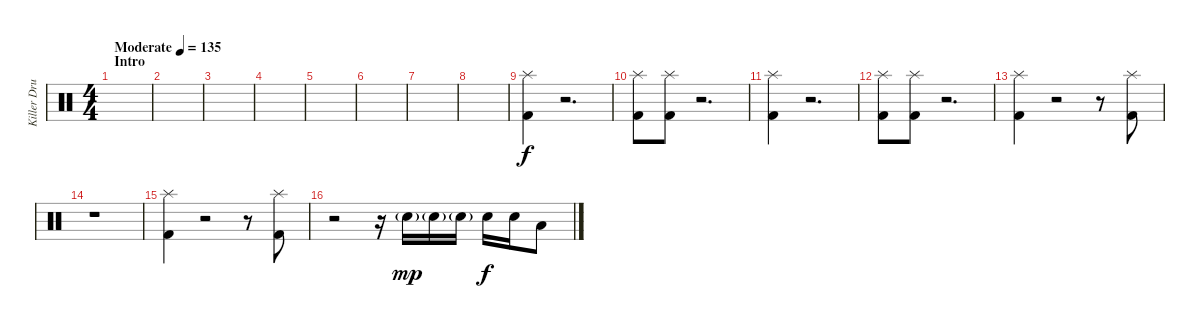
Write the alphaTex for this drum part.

\track ("Killer Drummer" "Killer Dru") {instrument percussion}
\staff {score}
\articulation defaults
\ts (4 4)
\section ("" "Intro")
\tempo (135 "Moderate")
\clef neutral
\ks c
|
|
|
|
|
|
|
|
("Splash (hit)" "Kick (hit) 2").4 r.2{d} |
("Splash (hit)" "Kick (hit) 2").8 ("Splash (hit)" "Kick (hit) 2").8 r.2{d} |
("Splash (hit)" "Kick (hit) 2").4 r.2{d} |
("Splash (hit)" "Kick (hit) 2").8 ("Splash (hit)" "Kick (hit) 2").8 r.2{d} |
("Splash (hit)" "Kick (hit) 2").4 r.2 r.8 ("Splash (hit)" "Kick (hit) 2").8 |
r.1 |
("Splash (hit)" "Kick (hit) 2").4 r.2 r.8 ("Splash (hit)" "Kick (hit) 2").8 |
r.2 r.16 "Electric Snare (hit)"{g}.16{dy mp} "Electric Snare (hit)"{g}.16 "Electric Snare (hit)"{g}.16 "Electric Snare (hit)".16{dy f} "Electric Snare (hit)".16 "Low Tom (hit)".8
